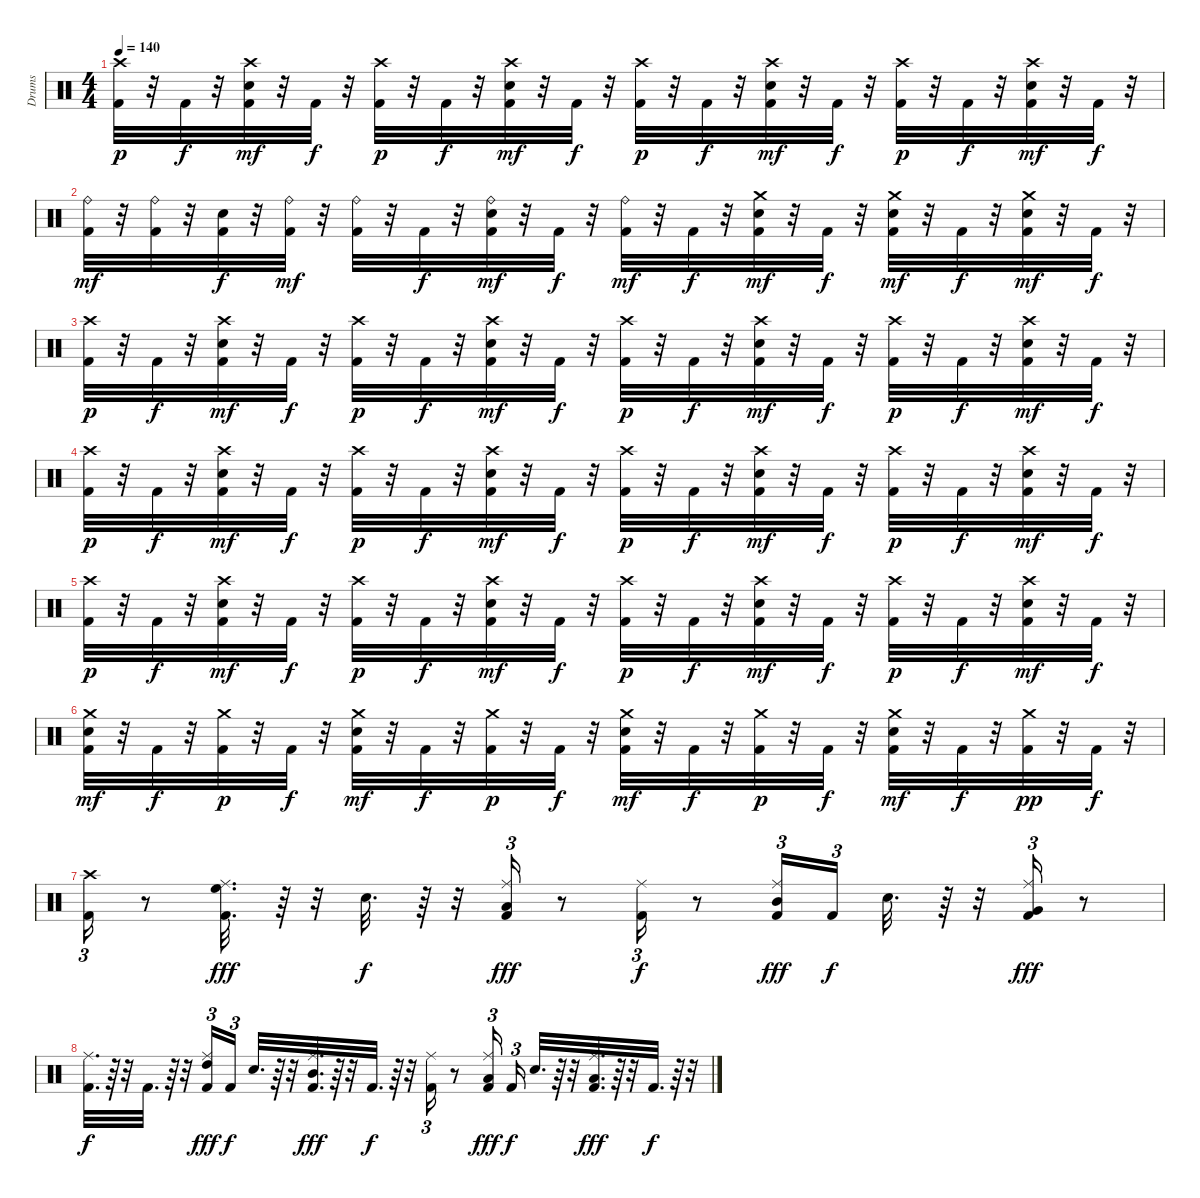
\track ("Drums" "Drums") {instrument percussion}
\staff {score}
\articulation defaults
\ts (4 4)
\tempo 140
\clef neutral
\ks c
("Kick (hit) 2" "Crash high (hit)").32{dy p} r.32 "Kick (hit) 2".32{dy f} r.32 ("Kick (hit) 2" "Electric Snare (hit)" "Crash high (hit)").32{dy mf} r.32 "Kick (hit) 2".32{dy f} r.32 ("Kick (hit) 2" "Crash high (hit)").32{dy p} r.32 "Kick (hit) 2".32{dy f} r.32 ("Kick (hit) 2" "Electric Snare (hit)" "Crash high (hit)").32{dy mf} r.32 "Kick (hit) 2".32{dy f} r.32 ("Kick (hit) 2" "Crash high (hit)").32{dy p} r.32 "Kick (hit) 2".32{dy f} r.32 ("Kick (hit) 2" "Electric Snare (hit)" "Crash high (hit)").32{dy mf} r.32 "Kick (hit) 2".32{dy f} r.32 ("Kick (hit) 2" "Crash high (hit)").32{dy p} r.32 "Kick (hit) 2".32{dy f} r.32 ("Kick (hit) 2" "Electric Snare (hit)" "Crash high (hit)").32{dy mf} r.32 "Kick (hit) 2".32{dy f} r.32 |
("Kick (hit) 2" "Ride (bell)").32{dy mf} r.32 ("Kick (hit) 2" "Ride (bell)").32 r.32 ("Kick (hit) 2" "Electric Snare (hit)").32{dy f} r.32 ("Kick (hit) 2" "Ride (bell)").32{dy mf} r.32 ("Kick (hit) 2" "Ride (bell)").32 r.32 "Kick (hit) 2".32{dy f} r.32 ("Kick (hit) 2" "Electric Snare (hit)" "Ride (bell)").32{dy mf} r.32 "Kick (hit) 2".32{dy f} r.32 ("Kick (hit) 2" "Ride (bell)").32{dy mf} r.32 "Kick (hit) 2".32{dy f} r.32 ("Kick (hit) 2" "Electric Snare (hit)" "Crash medium (hit)").32{dy mf} r.32 "Kick (hit) 2".32{dy f} r.32 ("Kick (hit) 2" "Electric Snare (hit)" "Crash medium (hit)").32{dy mf} r.32 "Kick (hit) 2".32{dy f} r.32 ("Kick (hit) 2" "Electric Snare (hit)" "Crash medium (hit)").32{dy mf} r.32 "Kick (hit) 2".32{dy f} r.32 |
("Kick (hit) 2" "Crash high (hit)").32{dy p} r.32 "Kick (hit) 2".32{dy f} r.32 ("Kick (hit) 2" "Electric Snare (hit)" "Crash high (hit)").32{dy mf} r.32 "Kick (hit) 2".32{dy f} r.32 ("Kick (hit) 2" "Crash high (hit)").32{dy p} r.32 "Kick (hit) 2".32{dy f} r.32 ("Kick (hit) 2" "Electric Snare (hit)" "Crash high (hit)").32{dy mf} r.32 "Kick (hit) 2".32{dy f} r.32 ("Kick (hit) 2" "Crash high (hit)").32{dy p} r.32 "Kick (hit) 2".32{dy f} r.32 ("Kick (hit) 2" "Electric Snare (hit)" "Crash high (hit)").32{dy mf} r.32 "Kick (hit) 2".32{dy f} r.32 ("Kick (hit) 2" "Crash high (hit)").32{dy p} r.32 "Kick (hit) 2".32{dy f} r.32 ("Kick (hit) 2" "Electric Snare (hit)" "Crash high (hit)").32{dy mf} r.32 "Kick (hit) 2".32{dy f} r.32 |
("Kick (hit) 2" "Crash high (hit)").32{dy p} r.32 "Kick (hit) 2".32{dy f} r.32 ("Kick (hit) 2" "Electric Snare (hit)" "Crash high (hit)").32{dy mf} r.32 "Kick (hit) 2".32{dy f} r.32 ("Kick (hit) 2" "Crash high (hit)").32{dy p} r.32 "Kick (hit) 2".32{dy f} r.32 ("Kick (hit) 2" "Electric Snare (hit)" "Crash high (hit)").32{dy mf} r.32 "Kick (hit) 2".32{dy f} r.32 ("Kick (hit) 2" "Crash high (hit)").32{dy p} r.32 "Kick (hit) 2".32{dy f} r.32 ("Kick (hit) 2" "Electric Snare (hit)" "Crash high (hit)").32{dy mf} r.32 "Kick (hit) 2".32{dy f} r.32 ("Kick (hit) 2" "Crash high (hit)").32{dy p} r.32 "Kick (hit) 2".32{dy f} r.32 ("Kick (hit) 2" "Electric Snare (hit)" "Crash high (hit)").32{dy mf} r.32 "Kick (hit) 2".32{dy f} r.32 |
("Kick (hit) 2" "Crash high (hit)").32{dy p} r.32 "Kick (hit) 2".32{dy f} r.32 ("Kick (hit) 2" "Electric Snare (hit)" "Crash high (hit)").32{dy mf} r.32 "Kick (hit) 2".32{dy f} r.32 ("Kick (hit) 2" "Crash high (hit)").32{dy p} r.32 "Kick (hit) 2".32{dy f} r.32 ("Kick (hit) 2" "Electric Snare (hit)" "Crash high (hit)").32{dy mf} r.32 "Kick (hit) 2".32{dy f} r.32 ("Kick (hit) 2" "Crash high (hit)").32{dy p} r.32 "Kick (hit) 2".32{dy f} r.32 ("Kick (hit) 2" "Electric Snare (hit)" "Crash high (hit)").32{dy mf} r.32 "Kick (hit) 2".32{dy f} r.32 ("Kick (hit) 2" "Crash high (hit)").32{dy p} r.32 "Kick (hit) 2".32{dy f} r.32 ("Kick (hit) 2" "Electric Snare (hit)" "Crash high (hit)").32{dy mf} r.32 "Kick (hit) 2".32{dy f} r.32 |
("Kick (hit) 2" "Electric Snare (hit)" "Crash medium (hit)").32{dy mf} r.32 "Kick (hit) 2".32{dy f} r.32 ("Kick (hit) 2" "Crash medium (hit)").32{dy p} r.32 "Kick (hit) 2".32{dy f} r.32 ("Kick (hit) 2" "Electric Snare (hit)" "Crash medium (hit)").32{dy mf} r.32 "Kick (hit) 2".32{dy f} r.32 ("Kick (hit) 2" "Crash medium (hit)").32{dy p} r.32 "Kick (hit) 2".32{dy f} r.32 ("Kick (hit) 2" "Electric Snare (hit)" "Crash medium (hit)").32{dy mf} r.32 "Kick (hit) 2".32{dy f} r.32 ("Kick (hit) 2" "Crash medium (hit)").32{dy p} r.32 "Kick (hit) 2".32{dy f} r.32 ("Kick (hit) 2" "Electric Snare (hit)" "Crash medium (hit)").32{dy mf} r.32 "Kick (hit) 2".32{dy f} r.32 ("Kick (hit) 2" "Crash medium (hit)").32{dy pp} r.32 "Kick (hit) 2".32{dy f} r.32 |
("Kick (hit) 2" "Crash high (hit)").16{tu (3 2)} r.8 ("Kick (hit) 2" "High Floor Tom (hit)" "Ride (middle)").32{d dy fff} r.64 r.32 "Electric Snare (hit)".32{d dy f} r.64 r.32 ("Kick (hit) 2" "Low Tom (hit)" "Ride (middle)").16{tu (3 2) dy fff} r.8 ("Kick (hit) 2" "Ride (middle)").16{tu (3 2) dy f} r.8 ("Kick (hit) 2" "Mid Tom (hit)" "Ride (middle)").16{tu (3 2) dy fff} "Kick (hit) 2".16{tu (3 2) dy f} "Electric Snare (hit)".32{d} r.64 r.32 ("Kick (hit) 2" "Very Low Tom (hit)" "Ride (middle)").16{tu (3 2) dy fff} r.8 |
("Kick (hit) 2" "Ride (middle)").32{d dy f} r.64 r.32 "Kick (hit) 2".32{d} r.64 r.32 ("Kick (hit) 2" "High Tom (hit)" "Ride (middle)").16{tu (3 2) dy fff} "Kick (hit) 2".16{tu (3 2) dy f} "Electric Snare (hit)".32{d} r.64 r.32 ("Kick (hit) 2" "Mid Tom (hit)" "Ride (middle)").32{d dy fff} r.64 r.32 "Kick (hit) 2".32{d dy f} r.64 r.32 ("Kick (hit) 2" "Ride (middle)").16{tu (3 2)} r.8 ("Kick (hit) 2" "Low Tom (hit)" "Ride (middle)").16{tu (3 2) dy fff} "Kick (hit) 2".16{tu (3 2) dy f} "Electric Snare (hit)".32{d} r.64 r.32 ("Kick (hit) 2" "Low Floor Tom (hit)" "Ride (middle)").32{d dy fff} r.64 r.32 "Kick (hit) 2".32{d dy f} r.64 r.32
